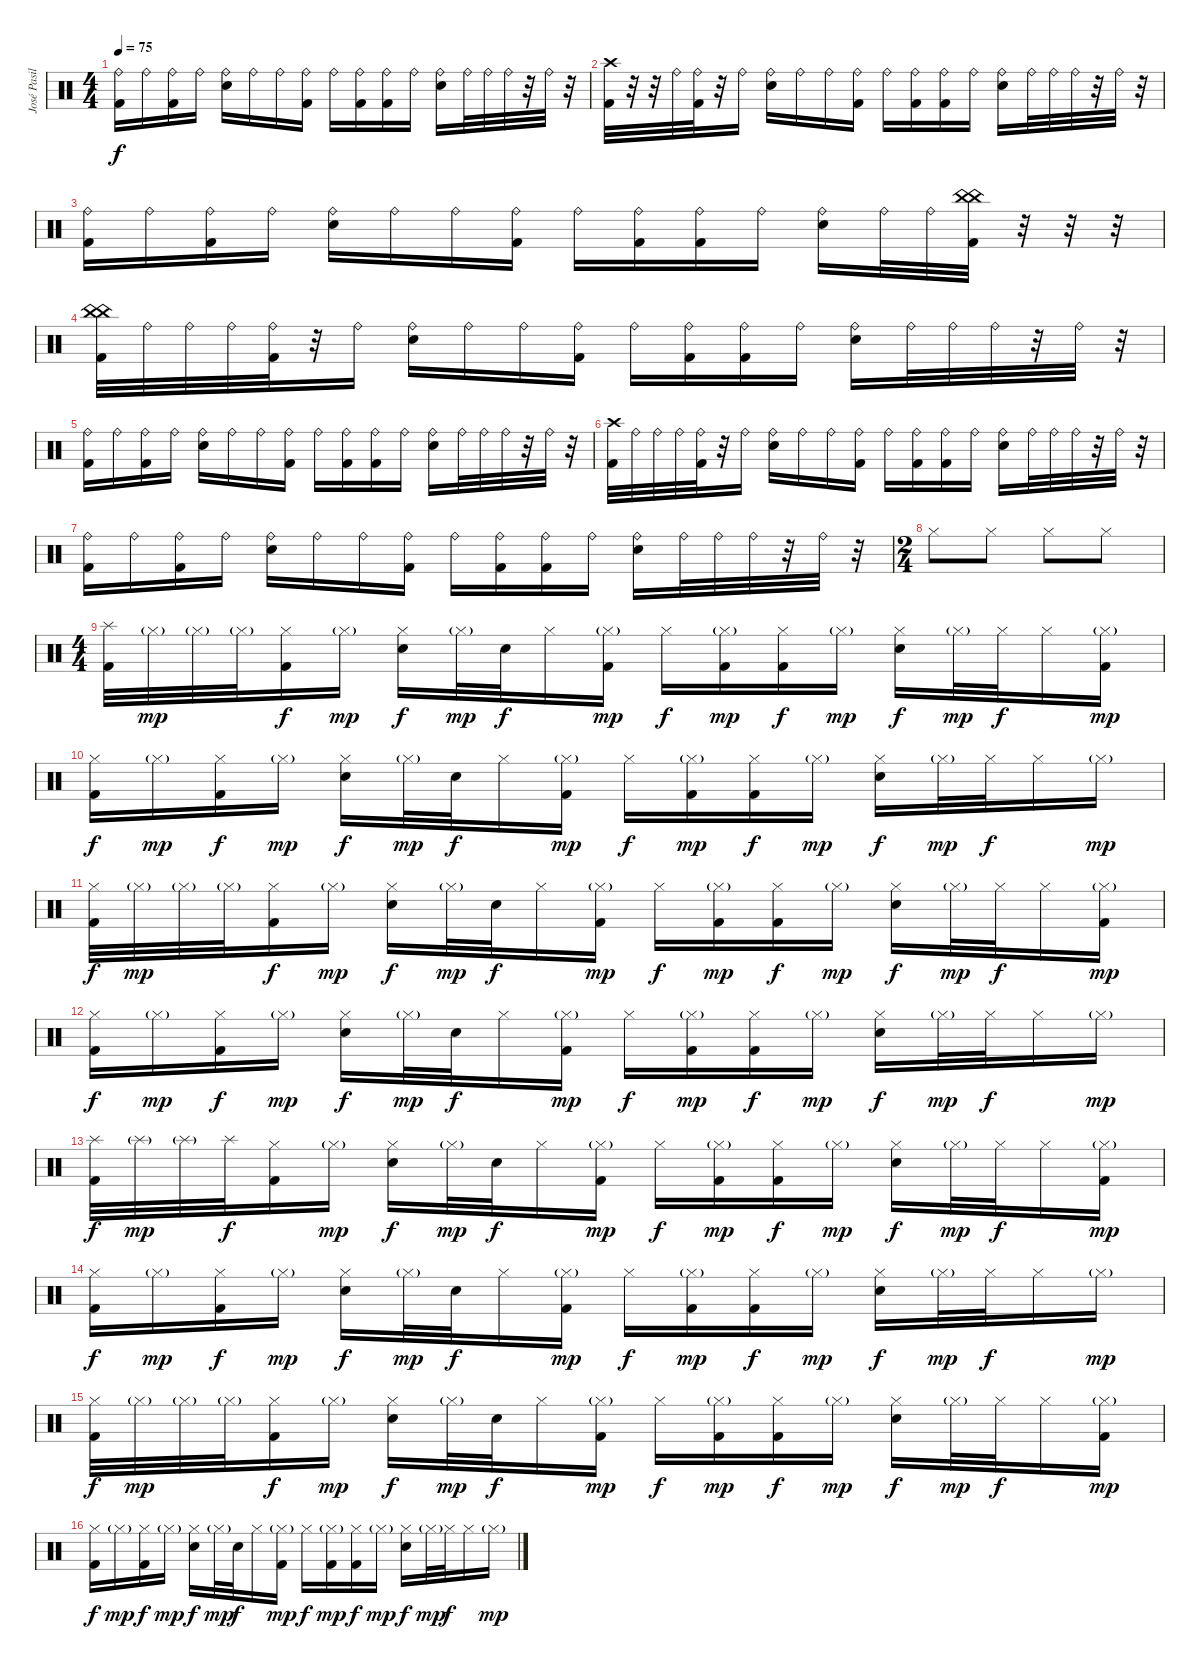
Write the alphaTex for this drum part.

\track ("José Pasillas" "José Pasil") {instrument percussion}
\staff {score}
\articulation defaults
\ts (4 4)
\tempo 75
\clef neutral
\ks c
("Ride (bell)" "Kick (hit) 2").16{dy f} "Ride (bell)".16 ("Ride (bell)" "Kick (hit) 2").16 "Ride (bell)".16 ("Ride (bell)" "Electric Snare (hit)").16 "Ride (bell)".16 "Ride (bell)".16 ("Ride (bell)" "Kick (hit) 2").16 "Ride (bell)".16 ("Ride (bell)" "Kick (hit) 2").16 ("Ride (bell)" "Kick (hit) 2").16 "Ride (bell)".16 ("Ride (bell)" "Electric Snare (hit)").16 "Ride (bell)".32 "Ride (bell)".32 "Ride (bell)".32 r.32 "Ride (bell)".32 r.32 |
("Crash high (hit)" "Kick (hit) 2").32 r.32 r.32 "Ride (bell)".32 ("Ride (bell)" "Kick (hit) 2").32 r.32 "Ride (bell)".16 ("Ride (bell)" "Electric Snare (hit)").16 "Ride (bell)".16 "Ride (bell)".16 ("Ride (bell)" "Kick (hit) 2").16 "Ride (bell)".16 ("Ride (bell)" "Kick (hit) 2").16 ("Ride (bell)" "Kick (hit) 2").16 "Ride (bell)".16 ("Ride (bell)" "Electric Snare (hit)").16 "Ride (bell)".32 "Ride (bell)".32 "Ride (bell)".32 r.32 "Ride (bell)".32 r.32 |
("Ride (bell)" "Kick (hit) 2").16 "Ride (bell)".16 ("Ride (bell)" "Kick (hit) 2").16 "Ride (bell)".16 ("Ride (bell)" "Electric Snare (hit)").16 "Ride (bell)".16 "Ride (bell)".16 ("Ride (bell)" "Kick (hit) 2").16 "Ride (bell)".16 ("Ride (bell)" "Kick (hit) 2").16 ("Ride (bell)" "Kick (hit) 2").16 "Ride (bell)".16 ("Ride (bell)" "Electric Snare (hit)").16 "Ride (bell)".32 "Ride (bell)".32 ("China (hit)" "China (hit)" "Kick (hit) 2").32 r.32 r.32 r.32 |
("China (hit)" "China (hit)" "Kick (hit) 2").32 "Ride (bell)".32 "Ride (bell)".32 "Ride (bell)".32 ("Ride (bell)" "Kick (hit) 2").32 r.32 "Ride (bell)".16 ("Ride (bell)" "Electric Snare (hit)").16 "Ride (bell)".16 "Ride (bell)".16 ("Ride (bell)" "Kick (hit) 2").16 "Ride (bell)".16 ("Ride (bell)" "Kick (hit) 2").16 ("Ride (bell)" "Kick (hit) 2").16 "Ride (bell)".16 ("Ride (bell)" "Electric Snare (hit)").16 "Ride (bell)".32 "Ride (bell)".32 "Ride (bell)".32 r.32 "Ride (bell)".32 r.32 |
("Ride (bell)" "Kick (hit) 2").16 "Ride (bell)".16 ("Ride (bell)" "Kick (hit) 2").16 "Ride (bell)".16 ("Ride (bell)" "Electric Snare (hit)").16 "Ride (bell)".16 "Ride (bell)".16 ("Ride (bell)" "Kick (hit) 2").16 "Ride (bell)".16 ("Ride (bell)" "Kick (hit) 2").16 ("Ride (bell)" "Kick (hit) 2").16 "Ride (bell)".16 ("Ride (bell)" "Electric Snare (hit)").16 "Ride (bell)".32 "Ride (bell)".32 "Ride (bell)".32 r.32 "Ride (bell)".32 r.32 |
("Crash high (hit)" "Kick (hit) 2").32 "Ride (bell)".32 "Ride (bell)".32 "Ride (bell)".32 ("Ride (bell)" "Kick (hit) 2").32 r.32 "Ride (bell)".16 ("Ride (bell)" "Electric Snare (hit)").16 "Ride (bell)".16 "Ride (bell)".16 ("Ride (bell)" "Kick (hit) 2").16 "Ride (bell)".16 ("Ride (bell)" "Kick (hit) 2").16 ("Ride (bell)" "Kick (hit) 2").16 "Ride (bell)".16 ("Ride (bell)" "Electric Snare (hit)").16 "Ride (bell)".32 "Ride (bell)".32 "Ride (bell)".32 r.32 "Ride (bell)".32 r.32 |
("Ride (bell)" "Kick (hit) 2").16 "Ride (bell)".16 ("Ride (bell)" "Kick (hit) 2").16 "Ride (bell)".16 ("Ride (bell)" "Electric Snare (hit)").16 "Ride (bell)".16 "Ride (bell)".16 ("Ride (bell)" "Kick (hit) 2").16 "Ride (bell)".16 ("Ride (bell)" "Kick (hit) 2").16 ("Ride (bell)" "Kick (hit) 2").16 "Ride (bell)".16 ("Ride (bell)" "Electric Snare (hit)").16 "Ride (bell)".32 "Ride (bell)".32 "Ride (bell)".32 r.32 "Ride (bell)".32 r.32 |
\ts (2 4)
"Hi-Hat (closed)".8 "Hi-Hat (closed)".8 "Hi-Hat (closed)".8 "Hi-Hat (closed)".8 |
\ts (4 4)
("Splash (hit)" "Kick (hit) 2").32 "Hi-Hat (closed)"{g}.32{dy mp} "Hi-Hat (closed)"{g}.32 "Hi-Hat (closed)"{g}.32 ("Hi-Hat (closed)" "Kick (hit) 2").16{dy f} "Hi-Hat (closed)"{g}.16{dy mp} ("Hi-Hat (closed)" "Electric Snare (hit)").16{dy f} "Hi-Hat (closed)"{g}.32{dy mp} "Electric Snare (hit)".32{dy f} "Hi-Hat (closed)".16 ("Hi-Hat (closed)"{g} "Kick (hit) 2").16{dy mp} "Hi-Hat (closed)".16{dy f} ("Hi-Hat (closed)"{g} "Kick (hit) 2").16{dy mp} ("Hi-Hat (closed)" "Kick (hit) 2").16{dy f} "Hi-Hat (closed)"{g}.16{dy mp} ("Hi-Hat (closed)" "Electric Snare (hit)").16{dy f} "Hi-Hat (closed)"{g}.32{dy mp} "Hi-Hat (closed)".32{dy f} "Hi-Hat (closed)".16 ("Hi-Hat (closed)"{g} "Kick (hit) 2").16{dy mp} |
("Hi-Hat (closed)" "Kick (hit) 2").16{dy f} "Hi-Hat (closed)"{g}.16{dy mp} ("Hi-Hat (closed)" "Kick (hit) 2").16{dy f} "Hi-Hat (closed)"{g}.16{dy mp} ("Hi-Hat (closed)" "Electric Snare (hit)").16{dy f} "Hi-Hat (closed)"{g}.32{dy mp} "Electric Snare (hit)".32{dy f} "Hi-Hat (closed)".16 ("Hi-Hat (closed)"{g} "Kick (hit) 2").16{dy mp} "Hi-Hat (closed)".16{dy f} ("Hi-Hat (closed)"{g} "Kick (hit) 2").16{dy mp} ("Hi-Hat (closed)" "Kick (hit) 2").16{dy f} "Hi-Hat (closed)"{g}.16{dy mp} ("Hi-Hat (closed)" "Electric Snare (hit)").16{dy f} "Hi-Hat (closed)"{g}.32{dy mp} "Hi-Hat (closed)".32{dy f} "Hi-Hat (closed)".16 "Hi-Hat (closed)"{g}.16{dy mp} |
("Hi-Hat (closed)" "Kick (hit) 2").32{dy f} "Hi-Hat (closed)"{g}.32{dy mp} "Hi-Hat (closed)"{g}.32 "Hi-Hat (closed)"{g}.32 ("Hi-Hat (closed)" "Kick (hit) 2").16{dy f} "Hi-Hat (closed)"{g}.16{dy mp} ("Hi-Hat (closed)" "Electric Snare (hit)").16{dy f} "Hi-Hat (closed)"{g}.32{dy mp} "Electric Snare (hit)".32{dy f} "Hi-Hat (closed)".16 ("Hi-Hat (closed)"{g} "Kick (hit) 2").16{dy mp} "Hi-Hat (closed)".16{dy f} ("Hi-Hat (closed)"{g} "Kick (hit) 2").16{dy mp} ("Hi-Hat (closed)" "Kick (hit) 2").16{dy f} "Hi-Hat (closed)"{g}.16{dy mp} ("Hi-Hat (closed)" "Electric Snare (hit)").16{dy f} "Hi-Hat (closed)"{g}.32{dy mp} "Hi-Hat (closed)".32{dy f} "Hi-Hat (closed)".16 ("Hi-Hat (closed)"{g} "Kick (hit) 2").16{dy mp} |
("Hi-Hat (closed)" "Kick (hit) 2").16{dy f} "Hi-Hat (closed)"{g}.16{dy mp} ("Hi-Hat (closed)" "Kick (hit) 2").16{dy f} "Hi-Hat (closed)"{g}.16{dy mp} ("Hi-Hat (closed)" "Electric Snare (hit)").16{dy f} "Hi-Hat (closed)"{g}.32{dy mp} "Electric Snare (hit)".32{dy f} "Hi-Hat (closed)".16 ("Hi-Hat (closed)"{g} "Kick (hit) 2").16{dy mp} "Hi-Hat (closed)".16{dy f} ("Hi-Hat (closed)"{g} "Kick (hit) 2").16{dy mp} ("Hi-Hat (closed)" "Kick (hit) 2").16{dy f} "Hi-Hat (closed)"{g}.16{dy mp} ("Hi-Hat (closed)" "Electric Snare (hit)").16{dy f} "Hi-Hat (closed)"{g}.32{dy mp} "Hi-Hat (closed)".32{dy f} "Hi-Hat (closed)".16 "Hi-Hat (closed)"{g}.16{dy mp} |
("Splash (hit)" "Kick (hit) 2").32{dy f} "Splash (hit)"{g}.32{dy mp} "Splash (hit)"{g}.32 "Splash (hit)".32{dy f} ("Hi-Hat (closed)" "Kick (hit) 2").16 "Hi-Hat (closed)"{g}.16{dy mp} ("Hi-Hat (closed)" "Electric Snare (hit)").16{dy f} "Hi-Hat (closed)"{g}.32{dy mp} "Electric Snare (hit)".32{dy f} "Hi-Hat (closed)".16 ("Hi-Hat (closed)"{g} "Kick (hit) 2").16{dy mp} "Hi-Hat (closed)".16{dy f} ("Hi-Hat (closed)"{g} "Kick (hit) 2").16{dy mp} ("Hi-Hat (closed)" "Kick (hit) 2").16{dy f} "Hi-Hat (closed)"{g}.16{dy mp} ("Hi-Hat (closed)" "Electric Snare (hit)").16{dy f} "Hi-Hat (closed)"{g}.32{dy mp} "Hi-Hat (closed)".32{dy f} "Hi-Hat (closed)".16 ("Hi-Hat (closed)"{g} "Kick (hit) 2").16{dy mp} |
("Hi-Hat (closed)" "Kick (hit) 2").16{dy f} "Hi-Hat (closed)"{g}.16{dy mp} ("Hi-Hat (closed)" "Kick (hit) 2").16{dy f} "Hi-Hat (closed)"{g}.16{dy mp} ("Hi-Hat (closed)" "Electric Snare (hit)").16{dy f} "Hi-Hat (closed)"{g}.32{dy mp} "Electric Snare (hit)".32{dy f} "Hi-Hat (closed)".16 ("Hi-Hat (closed)"{g} "Kick (hit) 2").16{dy mp} "Hi-Hat (closed)".16{dy f} ("Hi-Hat (closed)"{g} "Kick (hit) 2").16{dy mp} ("Hi-Hat (closed)" "Kick (hit) 2").16{dy f} "Hi-Hat (closed)"{g}.16{dy mp} ("Hi-Hat (closed)" "Electric Snare (hit)").16{dy f} "Hi-Hat (closed)"{g}.32{dy mp} "Hi-Hat (closed)".32{dy f} "Hi-Hat (closed)".16 "Hi-Hat (closed)"{g}.16{dy mp} |
("Hi-Hat (closed)" "Kick (hit) 2").32{dy f} "Hi-Hat (closed)"{g}.32{dy mp} "Hi-Hat (closed)"{g}.32 "Hi-Hat (closed)"{g}.32 ("Hi-Hat (closed)" "Kick (hit) 2").16{dy f} "Hi-Hat (closed)"{g}.16{dy mp} ("Hi-Hat (closed)" "Electric Snare (hit)").16{dy f} "Hi-Hat (closed)"{g}.32{dy mp} "Electric Snare (hit)".32{dy f} "Hi-Hat (closed)".16 ("Hi-Hat (closed)"{g} "Kick (hit) 2").16{dy mp} "Hi-Hat (closed)".16{dy f} ("Hi-Hat (closed)"{g} "Kick (hit) 2").16{dy mp} ("Hi-Hat (closed)" "Kick (hit) 2").16{dy f} "Hi-Hat (closed)"{g}.16{dy mp} ("Hi-Hat (closed)" "Electric Snare (hit)").16{dy f} "Hi-Hat (closed)"{g}.32{dy mp} "Hi-Hat (closed)".32{dy f} "Hi-Hat (closed)".16 ("Hi-Hat (closed)"{g} "Kick (hit) 2").16{dy mp} |
("Hi-Hat (closed)" "Kick (hit) 2").16{dy f} "Hi-Hat (closed)"{g}.16{dy mp} ("Hi-Hat (closed)" "Kick (hit) 2").16{dy f} "Hi-Hat (closed)"{g}.16{dy mp} ("Hi-Hat (closed)" "Electric Snare (hit)").16{dy f} "Hi-Hat (closed)"{g}.32{dy mp} "Electric Snare (hit)".32{dy f} "Hi-Hat (closed)".16 ("Hi-Hat (closed)"{g} "Kick (hit) 2").16{dy mp} "Hi-Hat (closed)".16{dy f} ("Hi-Hat (closed)"{g} "Kick (hit) 2").16{dy mp} ("Hi-Hat (closed)" "Kick (hit) 2").16{dy f} "Hi-Hat (closed)"{g}.16{dy mp} ("Hi-Hat (closed)" "Electric Snare (hit)").16{dy f} "Hi-Hat (closed)"{g}.32{dy mp} "Hi-Hat (closed)".32{dy f} "Hi-Hat (closed)".16 "Hi-Hat (closed)"{g}.16{dy mp}
